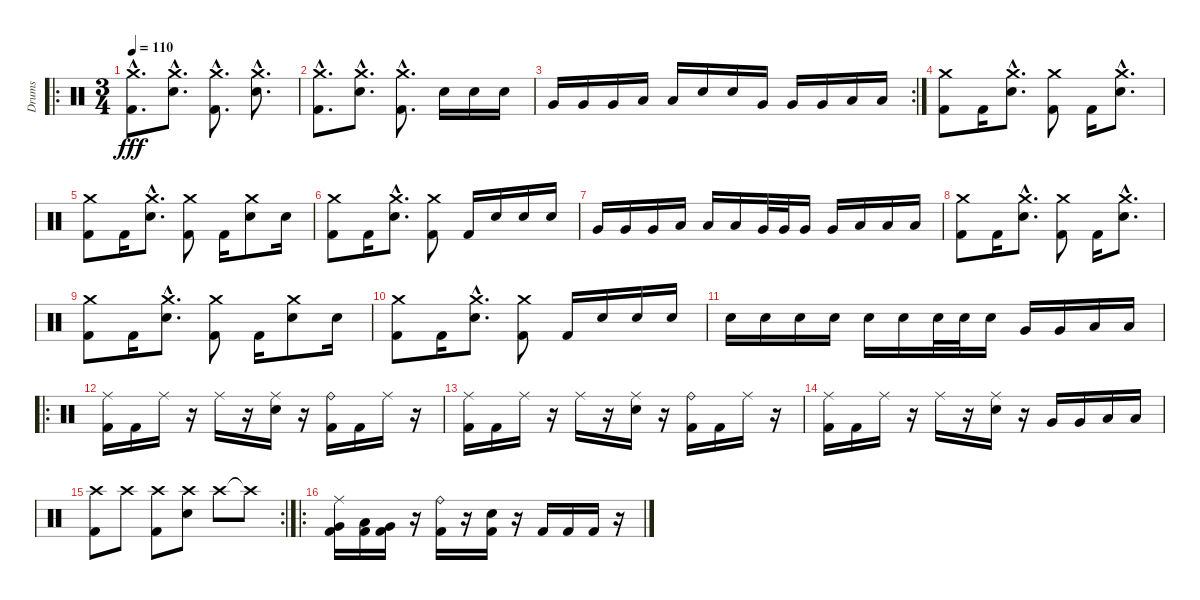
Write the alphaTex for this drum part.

\track ("Drums" "Drums") {instrument percussion}
\staff {score}
\articulation defaults
\ro
\ts (3 4)
\tempo 110
\clef neutral
\ks c
("Crash medium (hit)"{hac} "Kick (hit) 2"{hac}).8{d dy fff} ("Crash medium (hit)"{hac} "Electric Snare (hit)"{hac}).8{d} ("Crash medium (hit)"{hac} "Kick (hit) 2"{hac}).8{d} ("Crash medium (hit)"{hac} "Electric Snare (hit)"{hac}).8{d} |
("Crash medium (hit)"{hac} "Kick (hit) 2"{hac}).8{d} ("Crash medium (hit)"{hac} "Electric Snare (hit)"{hac}).8{d} ("Crash medium (hit)"{hac} "Kick (hit) 2"{hac}).8{d} "Electric Snare (hit)".16 "Electric Snare (hit)".16 "Electric Snare (hit)".16 |
\rc 2 "Very Low Tom (hit)".16 "Very Low Tom (hit)".16 "Very Low Tom (hit)".16 "Low Tom (hit)".16 "Low Tom (hit)".16 "Electric Snare (hit)".16 "Electric Snare (hit)".16 "Very Low Tom (hit)".16 "Very Low Tom (hit)".16 "Very Low Tom (hit)".16 "Low Tom (hit)".16 "Low Tom (hit)".16
|
("Crash medium (hit)" "Kick (hit) 2").8 "Kick (hit) 2".16 ("Crash medium (hit)"{hac} "Electric Snare (hit)"{hac}).8{d} ("Crash medium (hit)" "Kick (hit) 2").8 "Kick (hit) 2".16 ("Crash medium (hit)"{hac} "Electric Snare (hit)"{hac}).8{d} |
("Crash medium (hit)" "Kick (hit) 2").8 "Kick (hit) 2".16 ("Crash medium (hit)"{hac} "Electric Snare (hit)"{hac}).8{d} ("Crash medium (hit)" "Kick (hit) 2").8 "Kick (hit) 2".16 ("Crash medium (hit)" "Electric Snare (hit)").8 "Electric Snare (hit)".16 |
("Crash medium (hit)" "Kick (hit) 2").8 "Kick (hit) 2".16 ("Crash medium (hit)"{hac} "Electric Snare (hit)"{hac}).8{d} ("Crash medium (hit)" "Kick (hit) 2").8 "Kick (hit) 2".16 "Electric Snare (hit)".16 "Electric Snare (hit)".16 "Electric Snare (hit)".16 |
"Very Low Tom (hit)".16 "Very Low Tom (hit)".16 "Very Low Tom (hit)".16 "Low Tom (hit)".16 "Low Tom (hit)".16 "Low Tom (hit)".16 "Very Low Tom (hit)".32 "Very Low Tom (hit)".32 "Very Low Tom (hit)".16 "Very Low Tom (hit)".16 "Low Tom (hit)".16 "Low Tom (hit)".16 "Low Tom (hit)".16 |
("Crash medium (hit)" "Kick (hit) 2").8 "Kick (hit) 2".16 ("Crash medium (hit)"{hac} "Electric Snare (hit)"{hac}).8{d} ("Crash medium (hit)" "Kick (hit) 2").8 "Kick (hit) 2".16 ("Crash medium (hit)"{hac} "Electric Snare (hit)"{hac}).8{d} |
("Crash medium (hit)" "Kick (hit) 2").8 "Kick (hit) 2".16 ("Crash medium (hit)"{hac} "Electric Snare (hit)"{hac}).8{d} ("Crash medium (hit)" "Kick (hit) 2").8 "Kick (hit) 2".16 ("Crash medium (hit)" "Electric Snare (hit)").8 "Electric Snare (hit)".16 |
("Crash medium (hit)" "Kick (hit) 2").8 "Kick (hit) 2".16 ("Crash medium (hit)"{hac} "Electric Snare (hit)"{hac}).8{d} ("Crash medium (hit)" "Kick (hit) 2").8 "Kick (hit) 2".16 "Electric Snare (hit)".16 "Electric Snare (hit)".16 "Electric Snare (hit)".16 |
"Electric Snare (hit)".16 "Electric Snare (hit)".16 "Electric Snare (hit)".16 "Electric Snare (hit)".16 "Electric Snare (hit)".16 "Electric Snare (hit)".16 "Electric Snare (hit)".32 "Electric Snare (hit)".32 "Electric Snare (hit)".16 "Very Low Tom (hit)".16 "Very Low Tom (hit)".16 "Low Tom (hit)".16 "Low Tom (hit)".16 |
\ro
("Ride (middle)" "Kick (hit) 2").16 "Kick (hit) 2".16 "Ride (middle)".16 r.16 "Ride (middle)".16 r.16 ("Ride (middle)" "Electric Snare (hit)").16 r.16 ("Ride (bell)" "Kick (hit) 2").16 "Kick (hit) 2".16 "Ride (middle)".16 r.16 |
("Ride (middle)" "Kick (hit) 2").16 "Kick (hit) 2".16 "Ride (middle)".16 r.16 "Ride (middle)".16 r.16 ("Ride (middle)" "Electric Snare (hit)").16 r.16 ("Ride (bell)" "Kick (hit) 2").16 "Kick (hit) 2".16 "Ride (middle)".16 r.16 |
("Ride (middle)" "Kick (hit) 2").16 "Kick (hit) 2".16 "Ride (middle)".16 r.16 "Ride (middle)".16 r.16 ("Ride (middle)" "Electric Snare (hit)").16 r.16 "Very Low Tom (hit)".16 "Very Low Tom (hit)".16 "Low Tom (hit)".16 "Low Tom (hit)".16 |
\rc 2
("Crash high (hit)" "Kick (hit) 2").8 "Crash high (hit)".8 ("Crash high (hit)" "Kick (hit) 2").8 ("Crash high (hit)" "Electric Snare (hit)").8 "Crash high (hit)".8 "Crash high (hit)"{t}.8 |
\ro
("Ride (middle)" "Very Low Tom (hit)" "Kick (hit) 2").16 ("Low Tom (hit)" "Kick (hit) 2").16 ("Very Low Tom (hit)" "Kick (hit) 2").16 r.16 ("Ride (bell)" "Kick (hit) 2").16 r.16 ("Electric Snare (hit)" "Kick (hit) 2").16 r.16 "Kick (hit) 2".16 "Kick (hit) 2".16 "Kick (hit) 2".16 r.16
